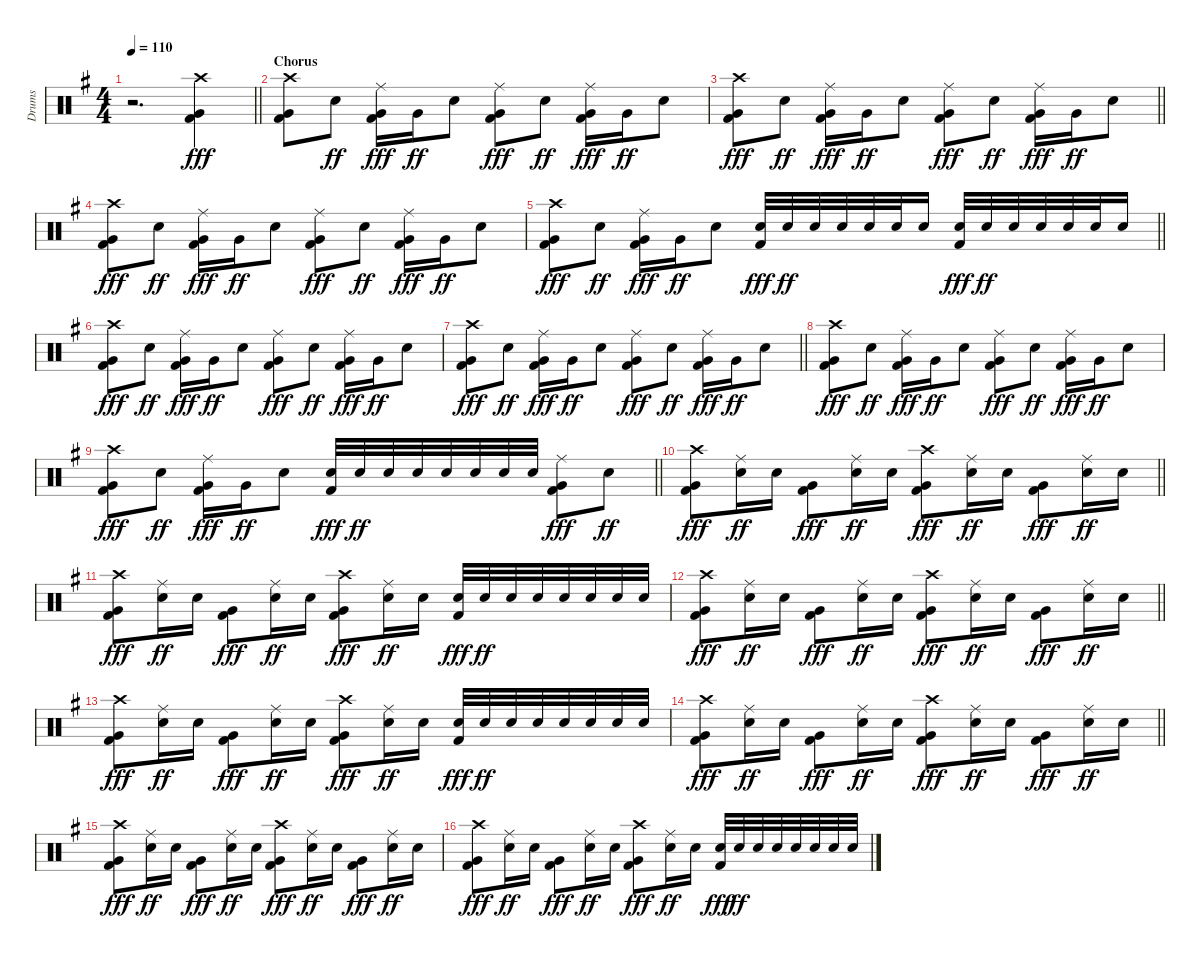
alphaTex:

\track ("Drums" "Drums") {instrument percussion}
\staff {score}
\articulation defaults
\ts (4 4)
\tempo 110
\clef neutral
\barLineRight lightlight
\ks g
r.2{d dy fff} ("Crash high (hit)" "Very Low Tom (hit)" "Kick (hit) 2").4 |
\section ("" "Chorus")
("Crash high (hit)" "Very Low Tom (hit)" "Kick (hit) 2").8 "Snare (hit) 2".8{dy ff} ("Ride (middle)" "Very Low Tom (hit)" "Kick (hit) 2").16{dy fff} "Very Low Tom (hit)".16{dy ff} "Snare (hit) 2".8 ("Ride (middle)" "Very Low Tom (hit)" "Kick (hit) 2").8{dy fff} "Snare (hit) 2".8{dy ff} ("Ride (middle)" "Very Low Tom (hit)" "Kick (hit) 2").16{dy fff} "Very Low Tom (hit)".16{dy ff} "Snare (hit) 2".8 |
\barLineRight lightlight
("Crash high (hit)" "Very Low Tom (hit)" "Kick (hit) 2").8{dy fff} "Snare (hit) 2".8{dy ff} ("Ride (middle)" "Very Low Tom (hit)" "Kick (hit) 2").16{dy fff} "Very Low Tom (hit)".16{dy ff} "Snare (hit) 2".8 ("Ride (middle)" "Very Low Tom (hit)" "Kick (hit) 2").8{dy fff} "Snare (hit) 2".8{dy ff} ("Ride (middle)" "Very Low Tom (hit)" "Kick (hit) 2").16{dy fff} "Very Low Tom (hit)".16{dy ff} "Snare (hit) 2".8 |
("Crash high (hit)" "Very Low Tom (hit)" "Kick (hit) 2").8{dy fff} "Snare (hit) 2".8{dy ff} ("Ride (middle)" "Very Low Tom (hit)" "Kick (hit) 2").16{dy fff} "Very Low Tom (hit)".16{dy ff} "Snare (hit) 2".8 ("Ride (middle)" "Very Low Tom (hit)" "Kick (hit) 2").8{dy fff} "Snare (hit) 2".8{dy ff} ("Ride (middle)" "Very Low Tom (hit)" "Kick (hit) 2").16{dy fff} "Very Low Tom (hit)".16{dy ff} "Snare (hit) 2".8 |
\barLineRight lightlight
("Crash high (hit)" "Very Low Tom (hit)" "Kick (hit) 2").8{dy fff} "Snare (hit) 2".8{dy ff} ("Ride (middle)" "Very Low Tom (hit)" "Kick (hit) 2").16{dy fff} "Very Low Tom (hit)".16{dy ff} "Snare (hit) 2".8 ("Snare (hit) 2" "Kick (hit) 2").32{dy fff} "Snare (hit) 2".32{dy ff} "Snare (hit) 2".32 "Snare (hit) 2".32 "Snare (hit) 2".32 "Snare (hit) 2".32 "Snare (hit) 2".16 ("Snare (hit) 2" "Kick (hit) 2").32{dy fff} "Snare (hit) 2".32{dy ff} "Snare (hit) 2".32 "Snare (hit) 2".32 "Snare (hit) 2".32 "Snare (hit) 2".32 "Snare (hit) 2".16 |
("Crash high (hit)" "Very Low Tom (hit)" "Kick (hit) 2").8{dy fff} "Snare (hit) 2".8{dy ff} ("Ride (middle)" "Very Low Tom (hit)" "Kick (hit) 2").16{dy fff} "Very Low Tom (hit)".16{dy ff} "Snare (hit) 2".8 ("Ride (middle)" "Very Low Tom (hit)" "Kick (hit) 2").8{dy fff} "Snare (hit) 2".8{dy ff} ("Ride (middle)" "Very Low Tom (hit)" "Kick (hit) 2").16{dy fff} "Very Low Tom (hit)".16{dy ff} "Snare (hit) 2".8 |
\barLineRight lightlight
("Crash high (hit)" "Very Low Tom (hit)" "Kick (hit) 2").8{dy fff} "Snare (hit) 2".8{dy ff} ("Ride (middle)" "Very Low Tom (hit)" "Kick (hit) 2").16{dy fff} "Very Low Tom (hit)".16{dy ff} "Snare (hit) 2".8 ("Ride (middle)" "Very Low Tom (hit)" "Kick (hit) 2").8{dy fff} "Snare (hit) 2".8{dy ff} ("Ride (middle)" "Very Low Tom (hit)" "Kick (hit) 2").16{dy fff} "Very Low Tom (hit)".16{dy ff} "Snare (hit) 2".8 |
("Crash high (hit)" "Very Low Tom (hit)" "Kick (hit) 2").8{dy fff} "Snare (hit) 2".8{dy ff} ("Ride (middle)" "Very Low Tom (hit)" "Kick (hit) 2").16{dy fff} "Very Low Tom (hit)".16{dy ff} "Snare (hit) 2".8 ("Ride (middle)" "Very Low Tom (hit)" "Kick (hit) 2").8{dy fff} "Snare (hit) 2".8{dy ff} ("Ride (middle)" "Very Low Tom (hit)" "Kick (hit) 2").16{dy fff} "Very Low Tom (hit)".16{dy ff} "Snare (hit) 2".8 |
\barLineRight lightlight
("Crash high (hit)" "Very Low Tom (hit)" "Kick (hit) 2").8{dy fff} "Snare (hit) 2".8{dy ff} ("Ride (middle)" "Very Low Tom (hit)" "Kick (hit) 2").16{dy fff} "Very Low Tom (hit)".16{dy ff} "Snare (hit) 2".8 ("Snare (hit) 2" "Kick (hit) 2").32{dy fff} "Snare (hit) 2".32{dy ff} "Snare (hit) 2".32 "Snare (hit) 2".32 "Snare (hit) 2".32 "Snare (hit) 2".32 "Snare (hit) 2".32 "Snare (hit) 2".32 ("Ride (middle)" "Very Low Tom (hit)" "Kick (hit) 2").8{dy fff} "Snare (hit) 2".8{dy ff} |
\barLineRight lightlight
("Crash high (hit)" "Very Low Tom (hit)" "Kick (hit) 2").8{dy fff} ("Ride (middle)" "Snare (hit) 2").16{dy ff} "Snare (hit) 2".16 ("Very Low Tom (hit)" "Kick (hit) 2").8{dy fff} ("Ride (middle)" "Snare (hit) 2").16{dy ff} "Snare (hit) 2".16 ("Crash high (hit)" "Very Low Tom (hit)" "Kick (hit) 2").8{dy fff} ("Ride (middle)" "Snare (hit) 2").16{dy ff} "Snare (hit) 2".16 ("Very Low Tom (hit)" "Kick (hit) 2").8{dy fff} ("Ride (middle)" "Snare (hit) 2").16{dy ff} "Snare (hit) 2".16 |
("Crash high (hit)" "Very Low Tom (hit)" "Kick (hit) 2").8{dy fff} ("Ride (middle)" "Snare (hit) 2").16{dy ff} "Snare (hit) 2".16 ("Very Low Tom (hit)" "Kick (hit) 2").8{dy fff} ("Ride (middle)" "Snare (hit) 2").16{dy ff} "Snare (hit) 2".16 ("Crash high (hit)" "Very Low Tom (hit)" "Kick (hit) 2").8{dy fff} ("Ride (middle)" "Snare (hit) 2").16{dy ff} "Snare (hit) 2".16 ("Snare (hit) 2" "Kick (hit) 2").32{dy fff} "Snare (hit) 2".32{dy ff} "Snare (hit) 2".32 "Snare (hit) 2".32 "Snare (hit) 2".32 "Snare (hit) 2".32 "Snare (hit) 2".32 "Snare (hit) 2".32 |
\barLineRight lightlight
("Crash high (hit)" "Very Low Tom (hit)" "Kick (hit) 2").8{dy fff} ("Ride (middle)" "Snare (hit) 2").16{dy ff} "Snare (hit) 2".16 ("Very Low Tom (hit)" "Kick (hit) 2").8{dy fff} ("Ride (middle)" "Snare (hit) 2").16{dy ff} "Snare (hit) 2".16 ("Crash high (hit)" "Very Low Tom (hit)" "Kick (hit) 2").8{dy fff} ("Ride (middle)" "Snare (hit) 2").16{dy ff} "Snare (hit) 2".16 ("Very Low Tom (hit)" "Kick (hit) 2").8{dy fff} ("Ride (middle)" "Snare (hit) 2").16{dy ff} "Snare (hit) 2".16 |
("Crash high (hit)" "Very Low Tom (hit)" "Kick (hit) 2").8{dy fff} ("Ride (middle)" "Snare (hit) 2").16{dy ff} "Snare (hit) 2".16 ("Very Low Tom (hit)" "Kick (hit) 2").8{dy fff} ("Ride (middle)" "Snare (hit) 2").16{dy ff} "Snare (hit) 2".16 ("Crash high (hit)" "Very Low Tom (hit)" "Kick (hit) 2").8{dy fff} ("Ride (middle)" "Snare (hit) 2").16{dy ff} "Snare (hit) 2".16 ("Snare (hit) 2" "Kick (hit) 2").32{dy fff} "Snare (hit) 2".32{dy ff} "Snare (hit) 2".32 "Snare (hit) 2".32 "Snare (hit) 2".32 "Snare (hit) 2".32 "Snare (hit) 2".32 "Snare (hit) 2".32 |
\barLineRight lightlight
("Crash high (hit)" "Very Low Tom (hit)" "Kick (hit) 2").8{dy fff} ("Ride (middle)" "Snare (hit) 2").16{dy ff} "Snare (hit) 2".16 ("Very Low Tom (hit)" "Kick (hit) 2").8{dy fff} ("Ride (middle)" "Snare (hit) 2").16{dy ff} "Snare (hit) 2".16 ("Crash high (hit)" "Very Low Tom (hit)" "Kick (hit) 2").8{dy fff} ("Ride (middle)" "Snare (hit) 2").16{dy ff} "Snare (hit) 2".16 ("Very Low Tom (hit)" "Kick (hit) 2").8{dy fff} ("Ride (middle)" "Snare (hit) 2").16{dy ff} "Snare (hit) 2".16 |
("Crash high (hit)" "Very Low Tom (hit)" "Kick (hit) 2").8{dy fff} ("Ride (middle)" "Snare (hit) 2").16{dy ff} "Snare (hit) 2".16 ("Very Low Tom (hit)" "Kick (hit) 2").8{dy fff} ("Ride (middle)" "Snare (hit) 2").16{dy ff} "Snare (hit) 2".16 ("Crash high (hit)" "Very Low Tom (hit)" "Kick (hit) 2").8{dy fff} ("Ride (middle)" "Snare (hit) 2").16{dy ff} "Snare (hit) 2".16 ("Very Low Tom (hit)" "Kick (hit) 2").8{dy fff} ("Ride (middle)" "Snare (hit) 2").16{dy ff} "Snare (hit) 2".16 |
("Crash high (hit)" "Very Low Tom (hit)" "Kick (hit) 2").8{dy fff} ("Ride (middle)" "Snare (hit) 2").16{dy ff} "Snare (hit) 2".16 ("Very Low Tom (hit)" "Kick (hit) 2").8{dy fff} ("Ride (middle)" "Snare (hit) 2").16{dy ff} "Snare (hit) 2".16 ("Crash high (hit)" "Very Low Tom (hit)" "Kick (hit) 2").8{dy fff} ("Ride (middle)" "Snare (hit) 2").16{dy ff} "Snare (hit) 2".16 ("Snare (hit) 2" "Kick (hit) 2").32{dy fff} "Snare (hit) 2".32{dy ff} "Snare (hit) 2".32 "Snare (hit) 2".32 "Snare (hit) 2".32 "Snare (hit) 2".32 "Snare (hit) 2".32 "Snare (hit) 2".32
